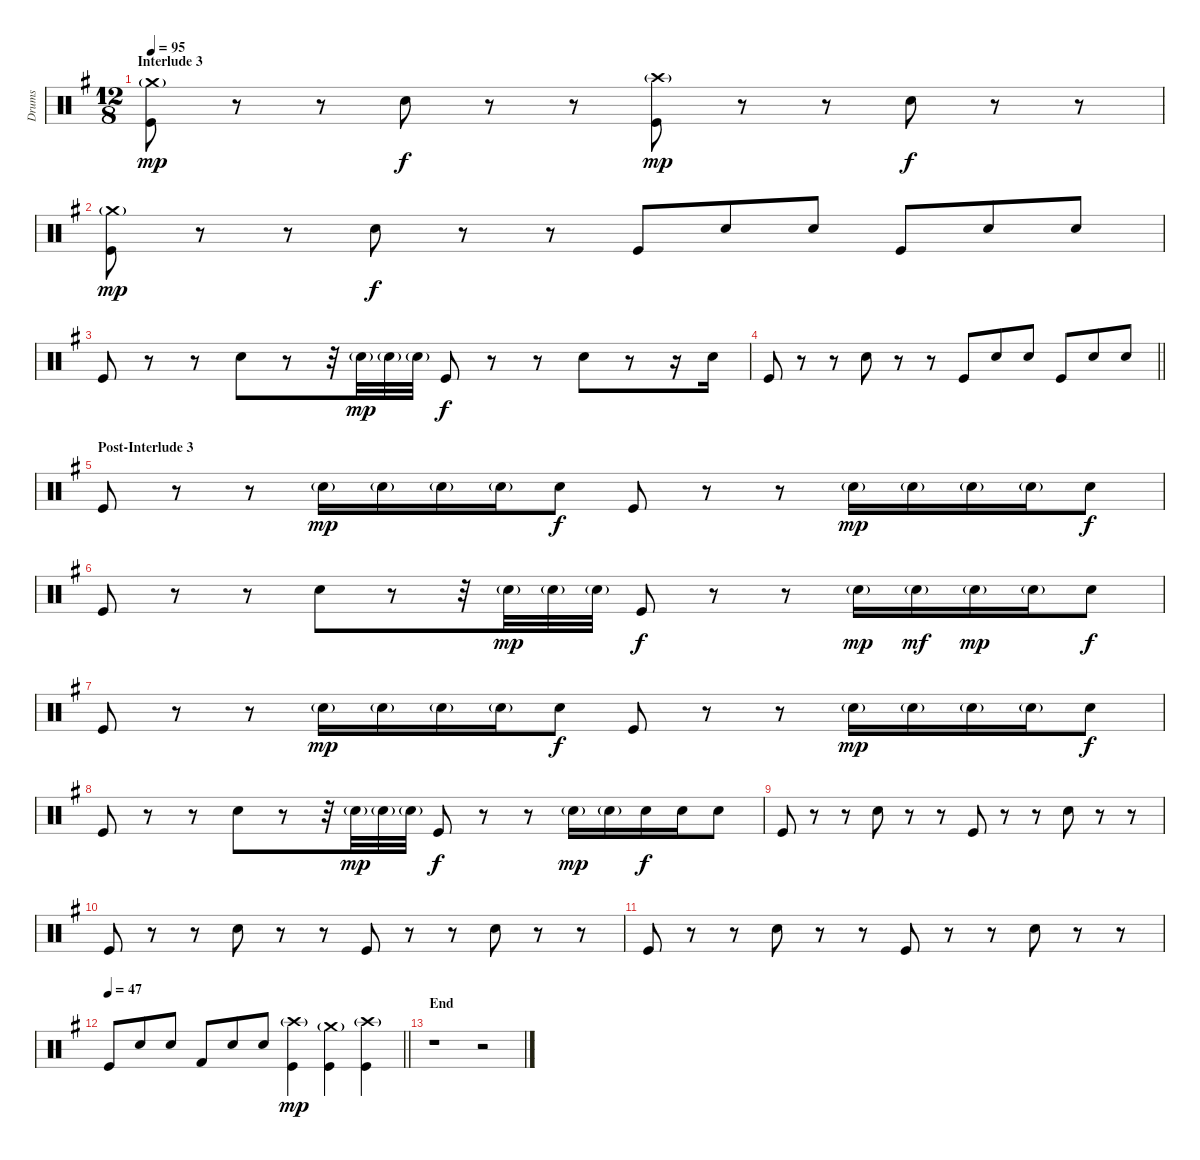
\track ("Drums" "Drums") {instrument percussion}
\staff {score}
\articulation defaults
\ts (12 8)
\section ("" "Interlude 3")
\tempo 95
\clef neutral
\ks eminor
("Crash medium (hit)"{g} "Kick (hit)").8{dy mp} r.8 r.8 "Snare (hit) 2".8{dy f} r.8 r.8 ("Crash high (hit)"{g} "Kick (hit)").8{dy mp} r.8 r.8 "Snare (hit) 2".8{dy f} r.8 r.8 |
("Crash medium (hit)"{g} "Kick (hit)").8{dy mp} r.8 r.8 "Snare (hit) 2".8{dy f} r.8 r.8 "Kick (hit)".8 "Snare (hit) 2".8 "Snare (hit) 2".8 "Kick (hit)".8 "Snare (hit) 2".8 "Snare (hit) 2".8 |
"Kick (hit)".8 r.8 r.8 "Snare (hit) 2".8 r.8 r.32 "Snare (hit) 2"{g}.32{dy mp} "Snare (hit) 2"{g}.32 "Snare (hit) 2"{g}.32 "Kick (hit)".8{dy f} r.8 r.8 "Snare (hit) 2".8 r.8 r.16 "Snare (hit) 2".16 |
\barLineRight lightlight "Kick (hit)".8
r.8 r.8 "Snare (hit) 2".8 r.8 r.8 "Kick (hit)".8 "Snare (hit) 2".8 "Snare (hit) 2".8 "Kick (hit)".8 "Snare (hit) 2".8 "Snare (hit) 2".8 |
\section ("" "Post-Interlude 3")
"Kick (hit)".8 r.8 r.8 "Snare (hit) 2"{g}.16{dy mp} "Snare (hit) 2"{g}.16 "Snare (hit) 2"{g}.16 "Snare (hit) 2"{g}.16 "Snare (hit) 2".8{dy f} "Kick (hit)".8 r.8 r.8 "Snare (hit) 2"{g}.16{dy mp} "Snare (hit) 2"{g}.16 "Snare (hit) 2"{g}.16 "Snare (hit) 2"{g}.16 "Snare (hit) 2".8{dy f} |
"Kick (hit)".8 r.8 r.8 "Snare (hit) 2".8 r.8 r.32 "Snare (hit) 2"{g}.32{dy mp} "Snare (hit) 2"{g}.32 "Snare (hit) 2"{g}.32 "Kick (hit)".8{dy f} r.8 r.8 "Snare (hit) 2"{g}.16{dy mp} "Snare (hit) 2"{g}.16{dy mf} "Snare (hit) 2"{g}.16{dy mp} "Snare (hit) 2"{g}.16 "Snare (hit) 2".8{dy f} |
"Kick (hit)".8 r.8 r.8 "Snare (hit) 2"{g}.16{dy mp} "Snare (hit) 2"{g}.16 "Snare (hit) 2"{g}.16 "Snare (hit) 2"{g}.16 "Snare (hit) 2".8{dy f} "Kick (hit)".8 r.8 r.8 "Snare (hit) 2"{g}.16{dy mp} "Snare (hit) 2"{g}.16 "Snare (hit) 2"{g}.16 "Snare (hit) 2"{g}.16 "Snare (hit) 2".8{dy f} |
"Kick (hit)".8 r.8 r.8 "Snare (hit) 2".8 r.8 r.32 "Snare (hit) 2"{g}.32{dy mp} "Snare (hit) 2"{g}.32 "Snare (hit) 2"{g}.32 "Kick (hit)".8{dy f} r.8 r.8 "Snare (hit) 2"{g}.16{dy mp} "Snare (hit) 2"{g}.16 "Snare (hit) 2".16{dy f} "Snare (hit) 2".16 "Snare (hit) 2".8 |
"Kick (hit)".8 r.8 r.8 "Snare (hit) 2".8 r.8 r.8 "Kick (hit)".8 r.8 r.8 "Snare (hit) 2".8 r.8 r.8 |
"Kick (hit)".8 r.8 r.8 "Snare (hit) 2".8 r.8 r.8 "Kick (hit)".8 r.8 r.8 "Snare (hit) 2".8 r.8 r.8 |
"Kick (hit)".8 r.8 r.8 "Snare (hit) 2".8 r.8 r.8 "Kick (hit)".8 r.8 r.8 "Snare (hit) 2".8 r.8 r.8 |
\tempo 47
\barLineRight lightlight "Kick (hit)".8 "Snare (hit) 2".8 "Snare (hit) 2".8 "Kick (hit) 2".8 "Snare (hit) 2".8 "Snare (hit) 2".8
("Crash high (hit)"{g} "Kick (hit)").4{dy mp} ("Crash medium (hit)"{g} "Kick (hit)").4 ("Crash high (hit)"{g} "Kick (hit)").4 |
\section ("" "End")
r.1 r.2
